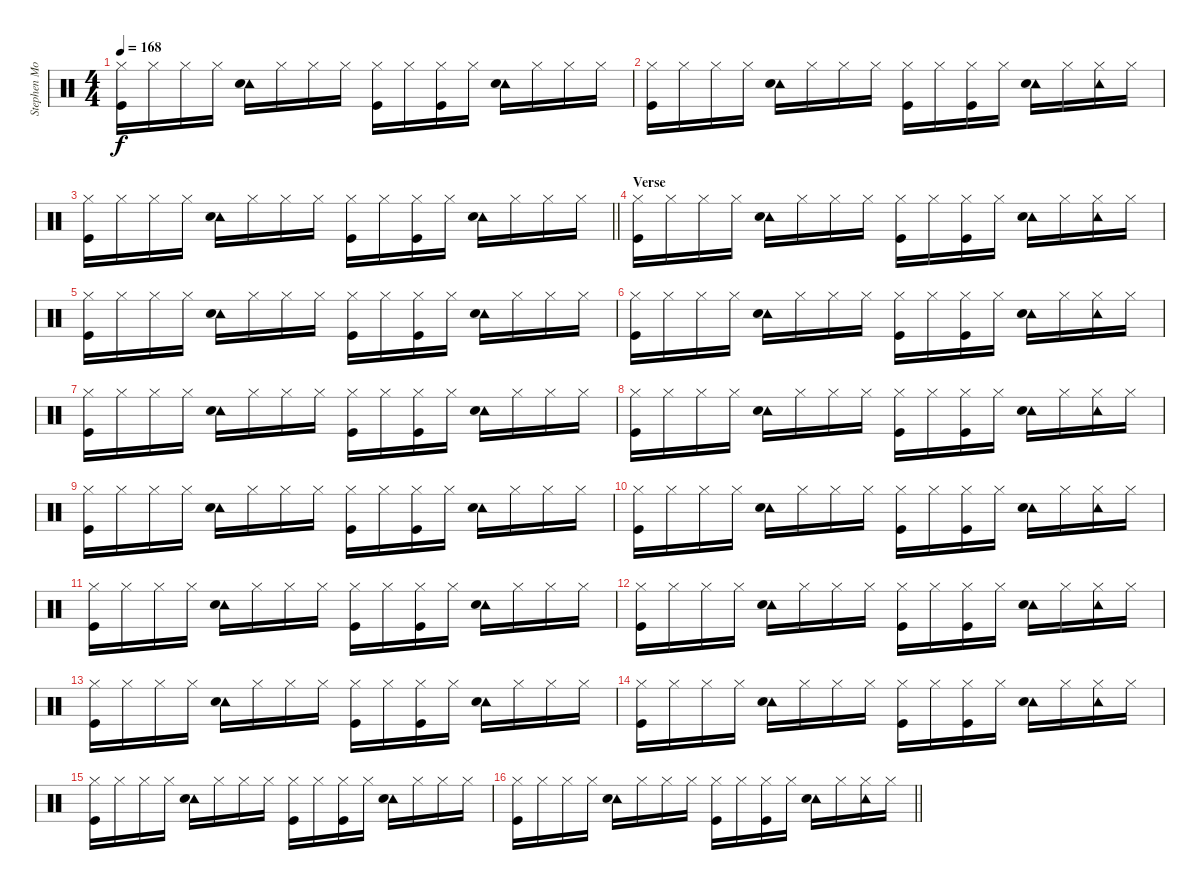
\track ("Stephen Morris - Drums" "Stephen Mo") {instrument percussion}
\staff {score}
\articulation defaults
\ts (4 4)
\tempo 168
\clef neutral
\ks c
("Hi-Hat (closed)" "Kick (hit)").16{dy f} "Hi-Hat (closed)".16 "Hi-Hat (closed)".16 "Hi-Hat (closed)".16 ("Tambourine (hit)" "Snare (hit) 2").16 "Hi-Hat (closed)".16 "Hi-Hat (closed)".16 "Hi-Hat (closed)".16 ("Hi-Hat (closed)" "Kick (hit)").16 "Hi-Hat (closed)".16 ("Hi-Hat (closed)" "Kick (hit)").16 "Hi-Hat (closed)".16 ("Tambourine (hit)" "Snare (hit) 2").16 "Hi-Hat (closed)".16 "Hi-Hat (closed)".16 "Hi-Hat (closed)".16 |
("Hi-Hat (closed)" "Kick (hit)").16 "Hi-Hat (closed)".16 "Hi-Hat (closed)".16 "Hi-Hat (closed)".16 ("Tambourine (hit)" "Snare (hit) 2").16 "Hi-Hat (closed)".16 "Hi-Hat (closed)".16 "Hi-Hat (closed)".16 ("Hi-Hat (closed)" "Kick (hit)").16 "Hi-Hat (closed)".16 ("Hi-Hat (closed)" "Kick (hit)").16 "Hi-Hat (closed)".16 ("Tambourine (hit)" "Snare (hit) 2").16 "Hi-Hat (closed)".16 ("Tambourine (hit)" "Hi-Hat (closed)").16 "Hi-Hat (closed)".16 |
\barLineRight lightlight
("Hi-Hat (closed)" "Kick (hit)").16 "Hi-Hat (closed)".16 "Hi-Hat (closed)".16 "Hi-Hat (closed)".16 ("Tambourine (hit)" "Snare (hit) 2").16 "Hi-Hat (closed)".16 "Hi-Hat (closed)".16 "Hi-Hat (closed)".16 ("Hi-Hat (closed)" "Kick (hit)").16 "Hi-Hat (closed)".16 ("Hi-Hat (closed)" "Kick (hit)").16 "Hi-Hat (closed)".16 ("Tambourine (hit)" "Snare (hit) 2").16 "Hi-Hat (closed)".16 "Hi-Hat (closed)".16 "Hi-Hat (closed)".16 |
\section ("" "Verse")
("Hi-Hat (closed)" "Kick (hit)").16 "Hi-Hat (closed)".16 "Hi-Hat (closed)".16 "Hi-Hat (closed)".16 ("Tambourine (hit)" "Snare (hit) 2").16 "Hi-Hat (closed)".16 "Hi-Hat (closed)".16 "Hi-Hat (closed)".16 ("Hi-Hat (closed)" "Kick (hit)").16 "Hi-Hat (closed)".16 ("Hi-Hat (closed)" "Kick (hit)").16 "Hi-Hat (closed)".16 ("Tambourine (hit)" "Snare (hit) 2").16 "Hi-Hat (closed)".16 ("Tambourine (hit)" "Hi-Hat (closed)").16 "Hi-Hat (closed)".16 |
("Hi-Hat (closed)" "Kick (hit)").16 "Hi-Hat (closed)".16 "Hi-Hat (closed)".16 "Hi-Hat (closed)".16 ("Tambourine (hit)" "Snare (hit) 2").16 "Hi-Hat (closed)".16 "Hi-Hat (closed)".16 "Hi-Hat (closed)".16 ("Hi-Hat (closed)" "Kick (hit)").16 "Hi-Hat (closed)".16 ("Hi-Hat (closed)" "Kick (hit)").16 "Hi-Hat (closed)".16 ("Tambourine (hit)" "Snare (hit) 2").16 "Hi-Hat (closed)".16 "Hi-Hat (closed)".16 "Hi-Hat (closed)".16 |
("Hi-Hat (closed)" "Kick (hit)").16 "Hi-Hat (closed)".16 "Hi-Hat (closed)".16 "Hi-Hat (closed)".16 ("Tambourine (hit)" "Snare (hit) 2").16 "Hi-Hat (closed)".16 "Hi-Hat (closed)".16 "Hi-Hat (closed)".16 ("Hi-Hat (closed)" "Kick (hit)").16 "Hi-Hat (closed)".16 ("Hi-Hat (closed)" "Kick (hit)").16 "Hi-Hat (closed)".16 ("Tambourine (hit)" "Snare (hit) 2").16 "Hi-Hat (closed)".16 ("Tambourine (hit)" "Hi-Hat (closed)").16 "Hi-Hat (closed)".16 |
("Hi-Hat (closed)" "Kick (hit)").16 "Hi-Hat (closed)".16 "Hi-Hat (closed)".16 "Hi-Hat (closed)".16 ("Tambourine (hit)" "Snare (hit) 2").16 "Hi-Hat (closed)".16 "Hi-Hat (closed)".16 "Hi-Hat (closed)".16 ("Hi-Hat (closed)" "Kick (hit)").16 "Hi-Hat (closed)".16 ("Hi-Hat (closed)" "Kick (hit)").16 "Hi-Hat (closed)".16 ("Tambourine (hit)" "Snare (hit) 2").16 "Hi-Hat (closed)".16 "Hi-Hat (closed)".16 "Hi-Hat (closed)".16 |
("Hi-Hat (closed)" "Kick (hit)").16 "Hi-Hat (closed)".16 "Hi-Hat (closed)".16 "Hi-Hat (closed)".16 ("Tambourine (hit)" "Snare (hit) 2").16 "Hi-Hat (closed)".16 "Hi-Hat (closed)".16 "Hi-Hat (closed)".16 ("Hi-Hat (closed)" "Kick (hit)").16 "Hi-Hat (closed)".16 ("Hi-Hat (closed)" "Kick (hit)").16 "Hi-Hat (closed)".16 ("Tambourine (hit)" "Snare (hit) 2").16 "Hi-Hat (closed)".16 ("Tambourine (hit)" "Hi-Hat (closed)").16 "Hi-Hat (closed)".16 |
("Hi-Hat (closed)" "Kick (hit)").16 "Hi-Hat (closed)".16 "Hi-Hat (closed)".16 "Hi-Hat (closed)".16 ("Tambourine (hit)" "Snare (hit) 2").16 "Hi-Hat (closed)".16 "Hi-Hat (closed)".16 "Hi-Hat (closed)".16 ("Hi-Hat (closed)" "Kick (hit)").16 "Hi-Hat (closed)".16 ("Hi-Hat (closed)" "Kick (hit)").16 "Hi-Hat (closed)".16 ("Tambourine (hit)" "Snare (hit) 2").16 "Hi-Hat (closed)".16 "Hi-Hat (closed)".16 "Hi-Hat (closed)".16 |
("Hi-Hat (closed)" "Kick (hit)").16 "Hi-Hat (closed)".16 "Hi-Hat (closed)".16 "Hi-Hat (closed)".16 ("Tambourine (hit)" "Snare (hit) 2").16 "Hi-Hat (closed)".16 "Hi-Hat (closed)".16 "Hi-Hat (closed)".16 ("Hi-Hat (closed)" "Kick (hit)").16 "Hi-Hat (closed)".16 ("Hi-Hat (closed)" "Kick (hit)").16 "Hi-Hat (closed)".16 ("Tambourine (hit)" "Snare (hit) 2").16 "Hi-Hat (closed)".16 ("Tambourine (hit)" "Hi-Hat (closed)").16 "Hi-Hat (closed)".16 |
("Hi-Hat (closed)" "Kick (hit)").16 "Hi-Hat (closed)".16 "Hi-Hat (closed)".16 "Hi-Hat (closed)".16 ("Tambourine (hit)" "Snare (hit) 2").16 "Hi-Hat (closed)".16 "Hi-Hat (closed)".16 "Hi-Hat (closed)".16 ("Hi-Hat (closed)" "Kick (hit)").16 "Hi-Hat (closed)".16 ("Hi-Hat (closed)" "Kick (hit)").16 "Hi-Hat (closed)".16 ("Tambourine (hit)" "Snare (hit) 2").16 "Hi-Hat (closed)".16 "Hi-Hat (closed)".16 "Hi-Hat (closed)".16 |
("Hi-Hat (closed)" "Kick (hit)").16 "Hi-Hat (closed)".16 "Hi-Hat (closed)".16 "Hi-Hat (closed)".16 ("Tambourine (hit)" "Snare (hit) 2").16 "Hi-Hat (closed)".16 "Hi-Hat (closed)".16 "Hi-Hat (closed)".16 ("Hi-Hat (closed)" "Kick (hit)").16 "Hi-Hat (closed)".16 ("Hi-Hat (closed)" "Kick (hit)").16 "Hi-Hat (closed)".16 ("Tambourine (hit)" "Snare (hit) 2").16 "Hi-Hat (closed)".16 ("Tambourine (hit)" "Hi-Hat (closed)").16 "Hi-Hat (closed)".16 |
("Hi-Hat (closed)" "Kick (hit)").16 "Hi-Hat (closed)".16 "Hi-Hat (closed)".16 "Hi-Hat (closed)".16 ("Tambourine (hit)" "Snare (hit) 2").16 "Hi-Hat (closed)".16 "Hi-Hat (closed)".16 "Hi-Hat (closed)".16 ("Hi-Hat (closed)" "Kick (hit)").16 "Hi-Hat (closed)".16 ("Hi-Hat (closed)" "Kick (hit)").16 "Hi-Hat (closed)".16 ("Tambourine (hit)" "Snare (hit) 2").16 "Hi-Hat (closed)".16 "Hi-Hat (closed)".16 "Hi-Hat (closed)".16 |
("Hi-Hat (closed)" "Kick (hit)").16 "Hi-Hat (closed)".16 "Hi-Hat (closed)".16 "Hi-Hat (closed)".16 ("Tambourine (hit)" "Snare (hit) 2").16 "Hi-Hat (closed)".16 "Hi-Hat (closed)".16 "Hi-Hat (closed)".16 ("Hi-Hat (closed)" "Kick (hit)").16 "Hi-Hat (closed)".16 ("Hi-Hat (closed)" "Kick (hit)").16 "Hi-Hat (closed)".16 ("Tambourine (hit)" "Snare (hit) 2").16 "Hi-Hat (closed)".16 ("Tambourine (hit)" "Hi-Hat (closed)").16 "Hi-Hat (closed)".16 |
("Hi-Hat (closed)" "Kick (hit)").16 "Hi-Hat (closed)".16 "Hi-Hat (closed)".16 "Hi-Hat (closed)".16 ("Tambourine (hit)" "Snare (hit) 2").16 "Hi-Hat (closed)".16 "Hi-Hat (closed)".16 "Hi-Hat (closed)".16 ("Hi-Hat (closed)" "Kick (hit)").16 "Hi-Hat (closed)".16 ("Hi-Hat (closed)" "Kick (hit)").16 "Hi-Hat (closed)".16 ("Tambourine (hit)" "Snare (hit) 2").16 "Hi-Hat (closed)".16 "Hi-Hat (closed)".16 "Hi-Hat (closed)".16 |
\barLineRight lightlight
("Hi-Hat (closed)" "Kick (hit)").16 "Hi-Hat (closed)".16 "Hi-Hat (closed)".16 "Hi-Hat (closed)".16 ("Tambourine (hit)" "Snare (hit) 2").16 "Hi-Hat (closed)".16 "Hi-Hat (closed)".16 "Hi-Hat (closed)".16 ("Hi-Hat (closed)" "Kick (hit)").16 "Hi-Hat (closed)".16 ("Hi-Hat (closed)" "Kick (hit)").16 "Hi-Hat (closed)".16 ("Tambourine (hit)" "Snare (hit) 2").16 "Hi-Hat (closed)".16 ("Tambourine (hit)" "Hi-Hat (closed)").16 "Hi-Hat (closed)".16
